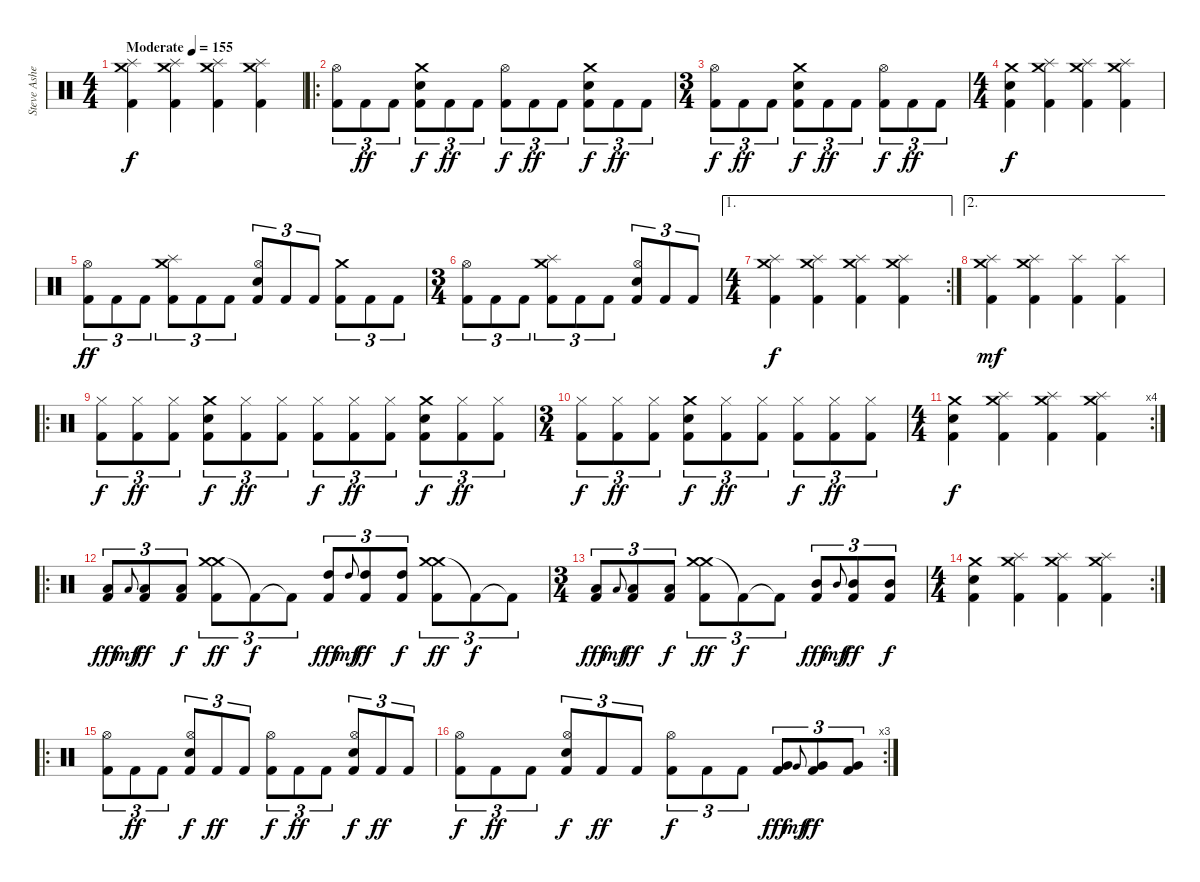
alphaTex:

\track ("Steve Asheim " "Steve Ashe") {instrument percussion}
\staff {score}
\articulation defaults
\ts (4 4)
\tempo (155 "Moderate")
\clef neutral
\ks c
("Crash medium (hit)" "Splash (hit)" "Kick (hit) 2").4{dy f} ("Crash medium (hit)" "Splash (hit)" "Kick (hit) 2").4 ("Crash medium (hit)" "Splash (hit)" "Kick (hit) 2").4 ("Crash medium (hit)" "Splash (hit)" "Kick (hit) 2").4 |
\ro
("Hi-Hat (open)" "Kick (hit) 2").8{tu (3 2)} "Kick (hit) 2".8{tu (3 2) dy ff} "Kick (hit) 2".8{tu (3 2)} ("Electric Snare (hit)" "Crash medium (hit)" "Kick (hit) 2").8{tu (3 2) dy f} "Kick (hit) 2".8{tu (3 2) dy ff} "Kick (hit) 2".8{tu (3 2)} ("Hi-Hat (open)" "Kick (hit) 2").8{tu (3 2) dy f} "Kick (hit) 2".8{tu (3 2) dy ff} "Kick (hit) 2".8{tu (3 2)} ("Electric Snare (hit)" "Crash medium (hit)" "Kick (hit) 2").8{tu (3 2) dy f} "Kick (hit) 2".8{tu (3 2) dy ff} "Kick (hit) 2".8{tu (3 2)} |
\ts (3 4)
("Hi-Hat (open)" "Kick (hit) 2").8{tu (3 2) dy f} "Kick (hit) 2".8{tu (3 2) dy ff} "Kick (hit) 2".8{tu (3 2)} ("Electric Snare (hit)" "Crash medium (hit)" "Kick (hit) 2").8{tu (3 2) dy f} "Kick (hit) 2".8{tu (3 2) dy ff} "Kick (hit) 2".8{tu (3 2)} ("Hi-Hat (open)" "Kick (hit) 2").8{tu (3 2) dy f} "Kick (hit) 2".8{tu (3 2) dy ff} "Kick (hit) 2".8{tu (3 2)} |
\ts (4 4)
("Crash medium (hit)" "Electric Snare (hit)" "Kick (hit) 2").4{dy f} ("Crash medium (hit)" "Splash (hit)" "Kick (hit) 2").4 ("Crash medium (hit)" "Splash (hit)" "Kick (hit) 2").4 ("Crash medium (hit)" "Splash (hit)" "Kick (hit) 2").4 |
("Hi-Hat (open)" "Kick (hit) 2").8{tu (3 2) dy ff} "Kick (hit) 2".8{tu (3 2)} "Kick (hit) 2".8{tu (3 2)} ("Splash (hit)" "Crash medium (hit)" "Kick (hit) 2").8{tu (3 2)} "Kick (hit) 2".8{tu (3 2)} "Kick (hit) 2".8{tu (3 2)} ("Electric Snare (hit)" "Hi-Hat (open)" "Kick (hit) 2").8{tu (3 2)} "Kick (hit) 2".8{tu (3 2)} "Kick (hit) 2".8{tu (3 2)} ("Crash medium (hit)" "Kick (hit) 2").8{tu (3 2)} "Kick (hit) 2".8{tu (3 2)} "Kick (hit) 2".8{tu (3 2)} |
\ts (3 4)
("Hi-Hat (open)" "Kick (hit) 2").8{tu (3 2)} "Kick (hit) 2".8{tu (3 2)} "Kick (hit) 2".8{tu (3 2)} ("Splash (hit)" "Crash medium (hit)" "Kick (hit) 2").8{tu (3 2)} "Kick (hit) 2".8{tu (3 2)} "Kick (hit) 2".8{tu (3 2)} ("Electric Snare (hit)" "Hi-Hat (open)" "Kick (hit) 2").8{tu (3 2)} "Kick (hit) 2".8{tu (3 2)} "Kick (hit) 2".8{tu (3 2)} |
\ae 1
\rc 2
\ts (4 4)
("Crash medium (hit)" "Splash (hit)" "Kick (hit) 2").4{dy f} ("Crash medium (hit)" "Splash (hit)" "Kick (hit) 2").4 ("Crash medium (hit)" "Splash (hit)" "Kick (hit) 2").4 ("Crash medium (hit)" "Splash (hit)" "Kick (hit) 2").4 |
\ae 2
("Crash medium (hit)" "Splash (hit)" "Kick (hit) 2").4{dy mf} ("Crash medium (hit)" "Splash (hit)" "Kick (hit) 2").4 ("Splash (hit)" "Kick (hit) 2").4 ("Splash (hit)" "Kick (hit) 2").4 |
\ro
("Hi-Hat (closed)" "Kick (hit) 2").8{tu (3 2) dy f} ("Hi-Hat (closed)" "Kick (hit) 2").8{tu (3 2) dy ff} ("Hi-Hat (closed)" "Kick (hit) 2").8{tu (3 2)} ("Electric Snare (hit)" "Crash medium (hit)" "Kick (hit) 2").8{tu (3 2) dy f} ("Hi-Hat (closed)" "Kick (hit) 2").8{tu (3 2) dy ff} ("Hi-Hat (closed)" "Kick (hit) 2").8{tu (3 2)} ("Hi-Hat (closed)" "Kick (hit) 2").8{tu (3 2) dy f} ("Hi-Hat (closed)" "Kick (hit) 2").8{tu (3 2) dy ff} ("Hi-Hat (closed)" "Kick (hit) 2").8{tu (3 2)} ("Electric Snare (hit)" "Crash medium (hit)" "Kick (hit) 2").8{tu (3 2) dy f} ("Hi-Hat (closed)" "Kick (hit) 2").8{tu (3 2) dy ff} ("Hi-Hat (closed)" "Kick (hit) 2").8{tu (3 2)} |
\ts (3 4)
("Hi-Hat (closed)" "Kick (hit) 2").8{tu (3 2) dy f} ("Hi-Hat (closed)" "Kick (hit) 2").8{tu (3 2) dy ff} ("Hi-Hat (closed)" "Kick (hit) 2").8{tu (3 2)} ("Electric Snare (hit)" "Crash medium (hit)" "Kick (hit) 2").8{tu (3 2) dy f} ("Hi-Hat (closed)" "Kick (hit) 2").8{tu (3 2) dy ff} ("Hi-Hat (closed)" "Kick (hit) 2").8{tu (3 2)} ("Hi-Hat (closed)" "Kick (hit) 2").8{tu (3 2) dy f} ("Hi-Hat (closed)" "Kick (hit) 2").8{tu (3 2) dy ff} ("Hi-Hat (closed)" "Kick (hit) 2").8{tu (3 2)} |
\rc 4
\ts (4 4)
("Crash medium (hit)" "Electric Snare (hit)" "Kick (hit) 2").4{dy f} ("Crash medium (hit)" "Splash (hit)" "Kick (hit) 2").4 ("Crash medium (hit)" "Splash (hit)" "Kick (hit) 2").4 ("Crash medium (hit)" "Splash (hit)" "Kick (hit) 2").4 |
\ro
("Low Floor Tom (hit)" "Kick (hit) 2").8{tu (3 2) dy fff} "Low Floor Tom (hit)".8{gr onbeat dy mf} ("Low Floor Tom (hit)" "Kick (hit) 2").8{tu (3 2) dy ff} ("Low Floor Tom (hit)" "Kick (hit) 2").8{tu (3 2) dy f} ("Crash medium (hit)" "Crash medium (hit)" "Kick (hit) 2").8{tu (3 2) dy ff} "Kick (hit) 2"{t}.8{tu (3 2) dy f} "Kick (hit) 2"{t}.8{tu (3 2)} ("High Tom (hit)" "Kick (hit) 2").8{tu (3 2) dy fff} "High Tom (hit)".8{gr onbeat dy mf} ("High Tom (hit)" "Kick (hit) 2").8{tu (3 2) dy ff} ("High Tom (hit)" "Kick (hit) 2").8{tu (3 2) dy f} ("Crash medium (hit)" "Crash medium (hit)" "Kick (hit) 2").8{tu (3 2) dy ff} "Kick (hit) 2"{t}.8{tu (3 2) dy f} "Kick (hit) 2"{t}.8{tu (3 2)} |
\ts (3 4)
("Low Floor Tom (hit)" "Kick (hit) 2").8{tu (3 2) dy fff} "Low Floor Tom (hit)".8{gr onbeat dy mf} ("Low Floor Tom (hit)" "Kick (hit) 2").8{tu (3 2) dy ff} ("Low Floor Tom (hit)" "Kick (hit) 2").8{tu (3 2) dy f} ("Crash medium (hit)" "Crash medium (hit)" "Kick (hit) 2").8{tu (3 2) dy ff} "Kick (hit) 2"{t}.8{tu (3 2) dy f} "Kick (hit) 2"{t}.8{tu (3 2)} ("Mid Tom (hit)" "Kick (hit) 2").8{tu (3 2) dy fff} "Mid Tom (hit)".8{gr onbeat dy mf} ("Mid Tom (hit)" "Kick (hit) 2").8{tu (3 2) dy ff} ("Mid Tom (hit)" "Kick (hit) 2").8{tu (3 2) dy f} |
\rc 2
\ts (4 4)
("Crash medium (hit)" "Electric Snare (hit)" "Kick (hit) 2").4 ("Crash medium (hit)" "Splash (hit)" "Kick (hit) 2").4 ("Crash medium (hit)" "Splash (hit)" "Kick (hit) 2").4 ("Crash medium (hit)" "Splash (hit)" "Kick (hit) 2").4 |
\ro
("Hi-Hat (open)" "Kick (hit) 2").8{tu (3 2)} "Kick (hit) 2".8{tu (3 2) dy ff} "Kick (hit) 2".8{tu (3 2)} ("Electric Snare (hit)" "Hi-Hat (open)" "Kick (hit) 2").8{tu (3 2) dy f} "Kick (hit) 2".8{tu (3 2) dy ff} "Kick (hit) 2".8{tu (3 2)} ("Hi-Hat (open)" "Kick (hit) 2").8{tu (3 2) dy f} "Kick (hit) 2".8{tu (3 2) dy ff} "Kick (hit) 2".8{tu (3 2)} ("Electric Snare (hit)" "Hi-Hat (open)" "Kick (hit) 2").8{tu (3 2) dy f} "Kick (hit) 2".8{tu (3 2) dy ff} "Kick (hit) 2".8{tu (3 2)} |
\rc 3
("Hi-Hat (open)" "Kick (hit) 2").8{tu (3 2) dy f} "Kick (hit) 2".8{tu (3 2) dy ff} "Kick (hit) 2".8{tu (3 2)} ("Electric Snare (hit)" "Hi-Hat (open)" "Kick (hit) 2").8{tu (3 2) dy f} "Kick (hit) 2".8{tu (3 2) dy ff} "Kick (hit) 2".8{tu (3 2)} ("Hi-Hat (open)" "Kick (hit) 2").8{tu (3 2) dy f} "Kick (hit) 2".8{tu (3 2)} "Kick (hit) 2".8{tu (3 2)} ("Very Low Tom (hit)" "Kick (hit) 2").8{tu (3 2) dy fff} "Very Low Tom (hit)".8{gr onbeat dy mf} ("Very Low Tom (hit)" "Kick (hit) 2").8{tu (3 2) dy ff} ("Very Low Tom (hit)" "Kick (hit) 2").8{tu (3 2)}
